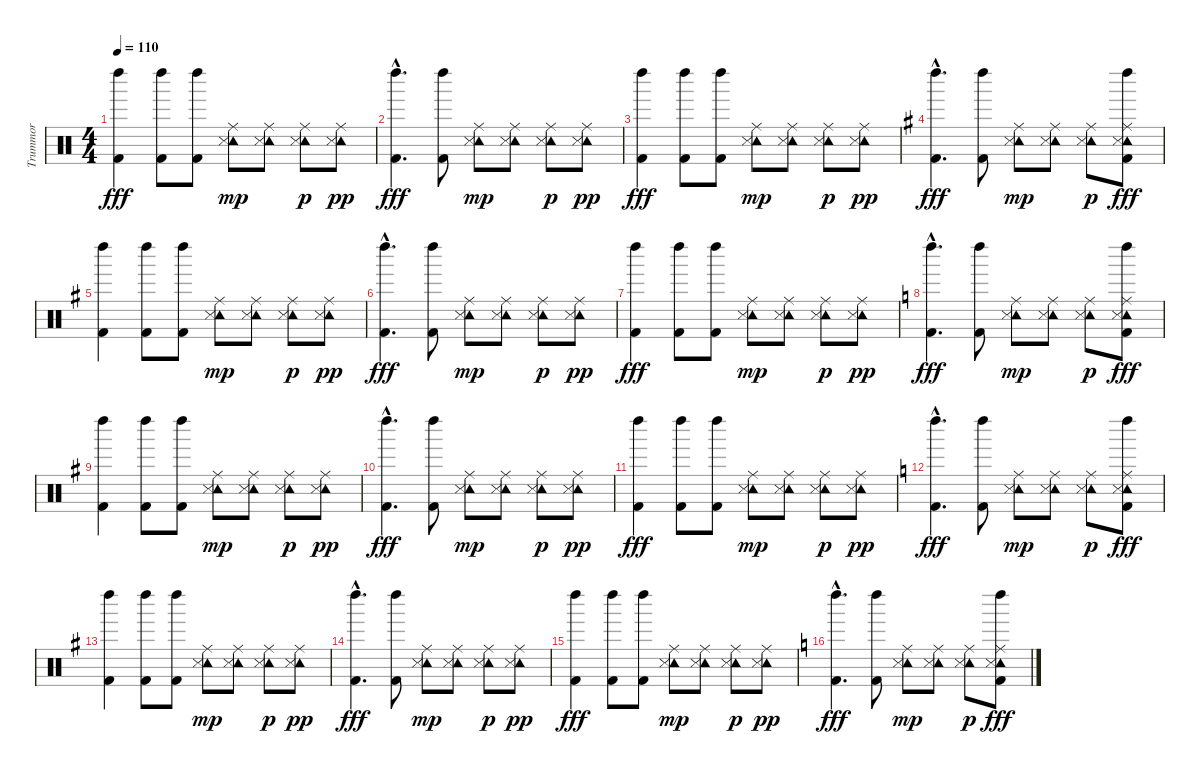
\track ("Trummor" "Trummor") {instrument percussion}
\staff {score}
\articulation defaults
\ts (4 4)
\tempo 110
\clef neutral
\ks c
("Left Maraca (hit)" "Kick (hit) 2").4{dy fff} ("Left Maraca (hit)" "Kick (hit) 2").8 ("Left Maraca (hit)" "Kick (hit) 2").8 ("Tambourine (hit)" "Ride (middle)" "Snare (side stick) 3").8{dy mp} ("Tambourine (hit)" "Ride (middle)" "Snare (side stick) 3").8 ("Tambourine (hit)" "Ride (middle)" "Snare (side stick) 3").8{dy p} ("Tambourine (hit)" "Ride (middle)" "Snare (side stick) 3").8{dy pp} |
("Left Maraca (hit)"{hac} "Kick (hit) 2"{hac}).4{d dy fff} ("Left Maraca (hit)" "Kick (hit) 2").8 ("Tambourine (hit)" "Ride (middle)" "Snare (side stick) 3").8{dy mp} ("Tambourine (hit)" "Ride (middle)" "Snare (side stick) 3").8 ("Tambourine (hit)" "Ride (middle)" "Snare (side stick) 3").8{dy p} ("Tambourine (hit)" "Ride (middle)" "Snare (side stick) 3").8{dy pp} |
("Left Maraca (hit)" "Kick (hit) 2").4{dy fff} ("Left Maraca (hit)" "Kick (hit) 2").8 ("Left Maraca (hit)" "Kick (hit) 2").8 ("Tambourine (hit)" "Ride (middle)" "Snare (side stick) 3").8{dy mp} ("Tambourine (hit)" "Ride (middle)" "Snare (side stick) 3").8 ("Tambourine (hit)" "Ride (middle)" "Snare (side stick) 3").8{dy p} ("Tambourine (hit)" "Ride (middle)" "Snare (side stick) 3").8{dy pp} |
\ks eminor
("Left Maraca (hit)"{hac} "Kick (hit) 2"{hac}).4{d dy fff} ("Left Maraca (hit)" "Kick (hit) 2").8 ("Tambourine (hit)" "Ride (middle)" "Snare (side stick) 3").8{dy mp} ("Tambourine (hit)" "Ride (middle)" "Snare (side stick) 3").8 ("Tambourine (hit)" "Ride (middle)" "Snare (side stick) 3").8{dy p} ("Tambourine (hit)" "Ride (middle)" "Snare (side stick) 3" "Left Maraca (hit)" "Kick (hit) 2").8{dy fff} |
("Left Maraca (hit)" "Kick (hit) 2").4 ("Left Maraca (hit)" "Kick (hit) 2").8 ("Left Maraca (hit)" "Kick (hit) 2").8 ("Tambourine (hit)" "Ride (middle)" "Snare (side stick) 3").8{dy mp} ("Tambourine (hit)" "Ride (middle)" "Snare (side stick) 3").8 ("Tambourine (hit)" "Ride (middle)" "Snare (side stick) 3").8{dy p} ("Tambourine (hit)" "Ride (middle)" "Snare (side stick) 3").8{dy pp} |
("Left Maraca (hit)"{hac} "Kick (hit) 2"{hac}).4{d dy fff} ("Left Maraca (hit)" "Kick (hit) 2").8 ("Tambourine (hit)" "Ride (middle)" "Snare (side stick) 3").8{dy mp} ("Tambourine (hit)" "Ride (middle)" "Snare (side stick) 3").8 ("Tambourine (hit)" "Ride (middle)" "Snare (side stick) 3").8{dy p} ("Tambourine (hit)" "Ride (middle)" "Snare (side stick) 3").8{dy pp} |
("Left Maraca (hit)" "Kick (hit) 2").4{dy fff} ("Left Maraca (hit)" "Kick (hit) 2").8 ("Left Maraca (hit)" "Kick (hit) 2").8 ("Tambourine (hit)" "Ride (middle)" "Snare (side stick) 3").8{dy mp} ("Tambourine (hit)" "Ride (middle)" "Snare (side stick) 3").8 ("Tambourine (hit)" "Ride (middle)" "Snare (side stick) 3").8{dy p} ("Tambourine (hit)" "Ride (middle)" "Snare (side stick) 3").8{dy pp} |
\ks c
("Left Maraca (hit)"{hac} "Kick (hit) 2"{hac}).4{d dy fff} ("Left Maraca (hit)" "Kick (hit) 2").8 ("Tambourine (hit)" "Ride (middle)" "Snare (side stick) 3").8{dy mp} ("Tambourine (hit)" "Ride (middle)" "Snare (side stick) 3").8 ("Tambourine (hit)" "Ride (middle)" "Snare (side stick) 3").8{dy p} ("Tambourine (hit)" "Ride (middle)" "Snare (side stick) 3" "Left Maraca (hit)" "Kick (hit) 2").8{dy fff} |
\ks eminor
("Left Maraca (hit)" "Kick (hit) 2").4 ("Left Maraca (hit)" "Kick (hit) 2").8 ("Left Maraca (hit)" "Kick (hit) 2").8 ("Tambourine (hit)" "Ride (middle)" "Snare (side stick) 3").8{dy mp} ("Tambourine (hit)" "Ride (middle)" "Snare (side stick) 3").8 ("Tambourine (hit)" "Ride (middle)" "Snare (side stick) 3").8{dy p} ("Tambourine (hit)" "Ride (middle)" "Snare (side stick) 3").8{dy pp} |
("Left Maraca (hit)"{hac} "Kick (hit) 2"{hac}).4{d dy fff} ("Left Maraca (hit)" "Kick (hit) 2").8 ("Tambourine (hit)" "Ride (middle)" "Snare (side stick) 3").8{dy mp} ("Tambourine (hit)" "Ride (middle)" "Snare (side stick) 3").8 ("Tambourine (hit)" "Ride (middle)" "Snare (side stick) 3").8{dy p} ("Tambourine (hit)" "Ride (middle)" "Snare (side stick) 3").8{dy pp} |
("Left Maraca (hit)" "Kick (hit) 2").4{dy fff} ("Left Maraca (hit)" "Kick (hit) 2").8 ("Left Maraca (hit)" "Kick (hit) 2").8 ("Tambourine (hit)" "Ride (middle)" "Snare (side stick) 3").8{dy mp} ("Tambourine (hit)" "Ride (middle)" "Snare (side stick) 3").8 ("Tambourine (hit)" "Ride (middle)" "Snare (side stick) 3").8{dy p} ("Tambourine (hit)" "Ride (middle)" "Snare (side stick) 3").8{dy pp} |
\ks c
("Left Maraca (hit)"{hac} "Kick (hit) 2"{hac}).4{d dy fff} ("Left Maraca (hit)" "Kick (hit) 2").8 ("Tambourine (hit)" "Ride (middle)" "Snare (side stick) 3").8{dy mp} ("Tambourine (hit)" "Ride (middle)" "Snare (side stick) 3").8 ("Tambourine (hit)" "Ride (middle)" "Snare (side stick) 3").8{dy p} ("Tambourine (hit)" "Ride (middle)" "Snare (side stick) 3" "Left Maraca (hit)" "Kick (hit) 2").8{dy fff} |
\ks eminor
("Left Maraca (hit)" "Kick (hit) 2").4 ("Left Maraca (hit)" "Kick (hit) 2").8 ("Left Maraca (hit)" "Kick (hit) 2").8 ("Tambourine (hit)" "Ride (middle)" "Snare (side stick) 3").8{dy mp} ("Tambourine (hit)" "Ride (middle)" "Snare (side stick) 3").8 ("Tambourine (hit)" "Ride (middle)" "Snare (side stick) 3").8{dy p} ("Tambourine (hit)" "Ride (middle)" "Snare (side stick) 3").8{dy pp} |
("Left Maraca (hit)"{hac} "Kick (hit) 2"{hac}).4{d dy fff} ("Left Maraca (hit)" "Kick (hit) 2").8 ("Tambourine (hit)" "Ride (middle)" "Snare (side stick) 3").8{dy mp} ("Tambourine (hit)" "Ride (middle)" "Snare (side stick) 3").8 ("Tambourine (hit)" "Ride (middle)" "Snare (side stick) 3").8{dy p} ("Tambourine (hit)" "Ride (middle)" "Snare (side stick) 3").8{dy pp} |
("Left Maraca (hit)" "Kick (hit) 2").4{dy fff} ("Left Maraca (hit)" "Kick (hit) 2").8 ("Left Maraca (hit)" "Kick (hit) 2").8 ("Tambourine (hit)" "Ride (middle)" "Snare (side stick) 3").8{dy mp} ("Tambourine (hit)" "Ride (middle)" "Snare (side stick) 3").8 ("Tambourine (hit)" "Ride (middle)" "Snare (side stick) 3").8{dy p} ("Tambourine (hit)" "Ride (middle)" "Snare (side stick) 3").8{dy pp} |
\ks c
("Left Maraca (hit)"{hac} "Kick (hit) 2"{hac}).4{d dy fff} ("Left Maraca (hit)" "Kick (hit) 2").8 ("Tambourine (hit)" "Ride (middle)" "Snare (side stick) 3").8{dy mp} ("Tambourine (hit)" "Ride (middle)" "Snare (side stick) 3").8 ("Tambourine (hit)" "Ride (middle)" "Snare (side stick) 3").8{dy p} ("Tambourine (hit)" "Ride (middle)" "Snare (side stick) 3" "Left Maraca (hit)" "Kick (hit) 2").8{dy fff}
